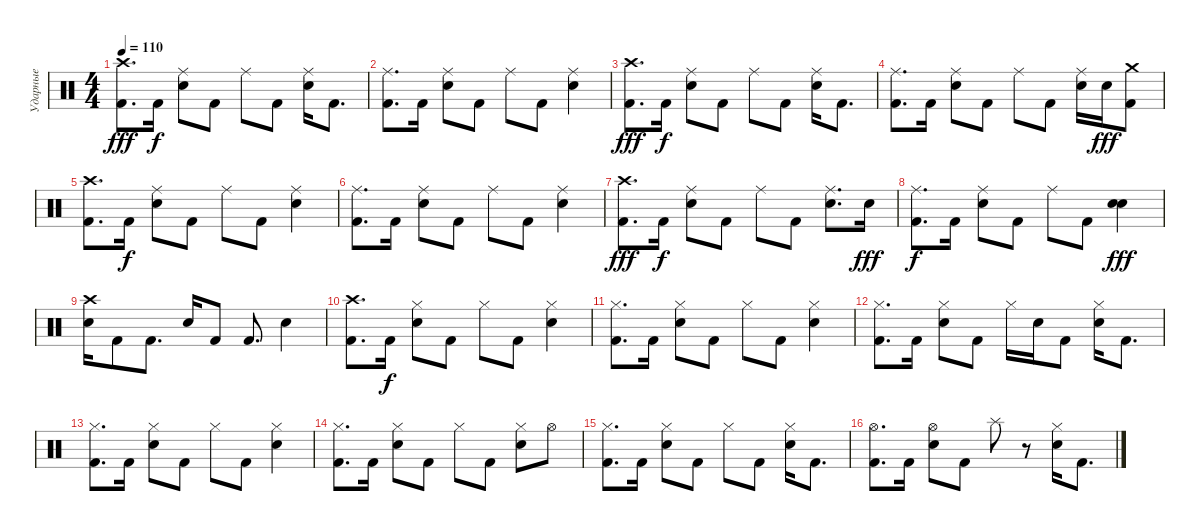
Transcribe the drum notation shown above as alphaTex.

\track ("Ударные" "Ударные") {instrument percussion}
\staff {score}
\articulation defaults
\ts (4 4)
\tempo 110
\clef neutral
\ks c
("Crash high (hit)" "Kick (hit) 2").8{d dy fff} "Kick (hit) 2".16{dy f} ("Electric Snare (hit)" "Ride (middle)").8 "Kick (hit) 2".8 "Ride (middle)".8 "Kick (hit) 2".8 ("Electric Snare (hit)" "Ride (middle)").16 "Kick (hit) 2".8{d} |
("Kick (hit) 2" "Ride (middle)").8{d} "Kick (hit) 2".16 ("Electric Snare (hit)" "Ride (middle)").8 "Kick (hit) 2".8 "Ride (middle)".8 "Kick (hit) 2".8 ("Electric Snare (hit)" "Ride (middle)").4 |
("Crash high (hit)" "Kick (hit) 2").8{d dy fff} "Kick (hit) 2".16{dy f} ("Electric Snare (hit)" "Ride (middle)").8 "Kick (hit) 2".8 "Ride (middle)".8 "Kick (hit) 2".8 ("Electric Snare (hit)" "Ride (middle)").16 "Kick (hit) 2".8{d} |
("Kick (hit) 2" "Ride (middle)").8{d} "Kick (hit) 2".16 ("Electric Snare (hit)" "Ride (middle)").8 "Kick (hit) 2".8 "Ride (middle)".8 "Kick (hit) 2".8 ("Electric Snare (hit)" "Ride (middle)").16 "Electric Snare (hit)".16{dy fff} ("Crash medium (hit)" "Kick (hit) 2").8 |
("Crash high (hit)" "Kick (hit) 2").8{d} "Kick (hit) 2".16{dy f} ("Electric Snare (hit)" "Ride (middle)").8 "Kick (hit) 2".8 "Ride (middle)".8 "Kick (hit) 2".8 ("Electric Snare (hit)" "Ride (middle)").4 |
("Kick (hit) 2" "Ride (middle)").8{d} "Kick (hit) 2".16 ("Electric Snare (hit)" "Ride (middle)").8 "Kick (hit) 2".8 "Ride (middle)".8 "Kick (hit) 2".8 ("Electric Snare (hit)" "Ride (middle)").4 |
("Crash high (hit)" "Kick (hit) 2").8{d dy fff} "Kick (hit) 2".16{dy f} ("Electric Snare (hit)" "Ride (middle)").8 "Kick (hit) 2".8 "Ride (middle)".8 "Kick (hit) 2".8 ("Electric Snare (hit)" "Ride (middle)").8{d} "Electric Snare (hit)".16{dy fff} |
("Kick (hit) 2" "Ride (middle)").8{d dy f} "Kick (hit) 2".16 ("Electric Snare (hit)" "Ride (middle)").8 "Kick (hit) 2".8 "Ride (middle)".8 "Kick (hit) 2".8 ("Electric Snare (hit)" "Electric Snare (hit)").4{dy fff} |
("Crash high (hit)" "Electric Snare (hit)").16 "Kick (hit) 2".8 "Kick (hit) 2".8{d} "Electric Snare (hit)".16 "Kick (hit) 2".8 "Kick (hit) 2".8{d} "Electric Snare (hit)".4 |
("Crash high (hit)" "Kick (hit) 2").8{d} "Kick (hit) 2".16{dy f} ("Electric Snare (hit)" "Hi-Hat (closed)").8 "Kick (hit) 2".8 "Hi-Hat (closed)".8 "Kick (hit) 2".8 ("Electric Snare (hit)" "Hi-Hat (closed)").4 |
("Kick (hit) 2" "Hi-Hat (closed)").8{d} "Kick (hit) 2".16 ("Electric Snare (hit)" "Hi-Hat (closed)").8 "Kick (hit) 2".8 "Hi-Hat (closed)".8 "Kick (hit) 2".8 ("Electric Snare (hit)" "Hi-Hat (closed)").4 |
("Kick (hit) 2" "Hi-Hat (closed)").8{d} "Kick (hit) 2".16 ("Electric Snare (hit)" "Hi-Hat (closed)").8 "Kick (hit) 2".8 "Hi-Hat (closed)".16 "Electric Snare (hit)".16 "Kick (hit) 2".8 ("Electric Snare (hit)" "Hi-Hat (closed)").16 "Kick (hit) 2".8{d} |
("Kick (hit) 2" "Hi-Hat (closed)").8{d} "Kick (hit) 2".16 ("Electric Snare (hit)" "Hi-Hat (closed)").8 "Kick (hit) 2".8 "Hi-Hat (closed)".8 "Kick (hit) 2".8 ("Electric Snare (hit)" "Hi-Hat (closed)").4 |
("Kick (hit) 2" "Hi-Hat (closed)").8{d} "Kick (hit) 2".16 ("Electric Snare (hit)" "Hi-Hat (closed)").8 "Kick (hit) 2".8 "Hi-Hat (closed)".8 "Kick (hit) 2".8 ("Electric Snare (hit)" "Hi-Hat (closed)").8 "Hi-Hat (open)".8 |
("Kick (hit) 2" "Hi-Hat (closed)").8{d} "Kick (hit) 2".16 ("Electric Snare (hit)" "Hi-Hat (closed)").8 "Kick (hit) 2".8 "Hi-Hat (closed)".8 "Kick (hit) 2".8 ("Electric Snare (hit)" "Hi-Hat (closed)").16 "Kick (hit) 2".8{d} |
("Kick (hit) 2" "Hi-Hat (open)").8{d} "Kick (hit) 2".16 ("Electric Snare (hit)" "Hi-Hat (open)").8 "Kick (hit) 2".8 "Splash (hit)".8 r.8 ("Electric Snare (hit)" "Hi-Hat (closed)").16 "Kick (hit) 2".8{d}
